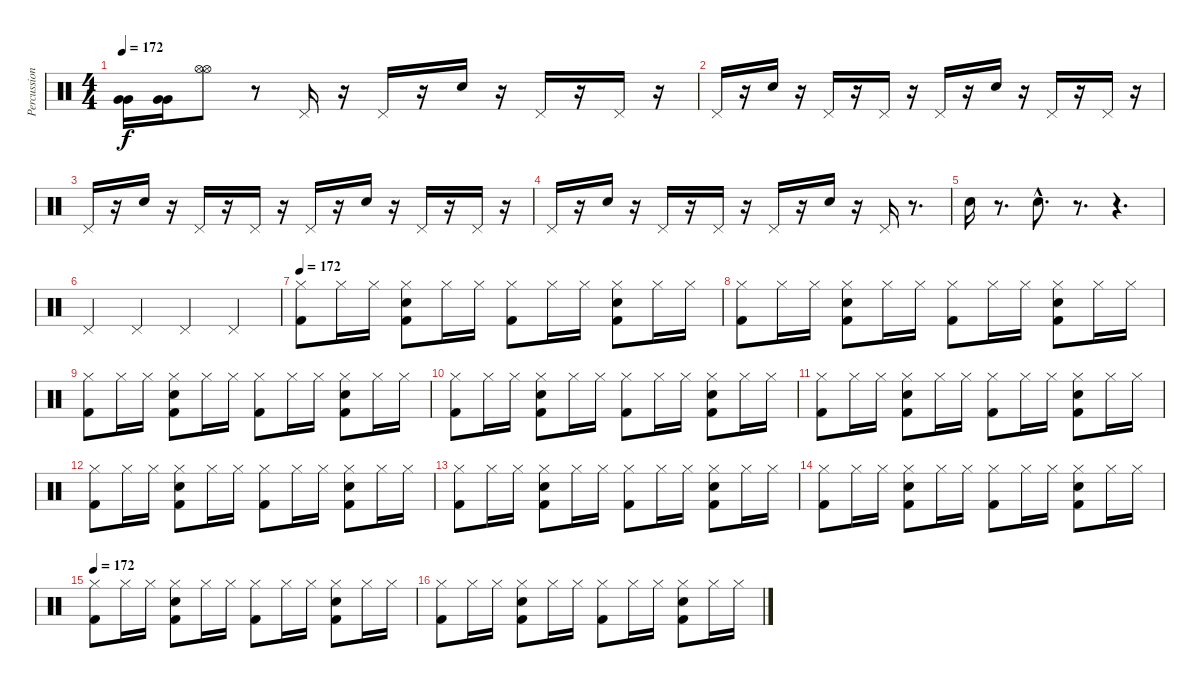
\track ("Percussion" "Percussion") {instrument percussion}
\staff {score}
\articulation defaults
\ts (4 4)
\tempo 172
\tempo 150
\tempo 172
\clef neutral
\ks c
("Very Low Tom (hit)" "Very Low Tom (hit)").16{dy f} ("Very Low Tom (hit)" "Very Low Tom (hit)").16 ("Hi-Hat (open)" "Hi-Hat (open)").8 r.8 "Pedal Hi-Hat (hit)".16 r.16 "Pedal Hi-Hat (hit)".16 r.16 "Snare (hit) 2".16 r.16 "Pedal Hi-Hat (hit)".16 r.16 "Pedal Hi-Hat (hit)".16 r.16 |
"Pedal Hi-Hat (hit)".16 r.16 "Snare (hit) 2".16 r.16 "Pedal Hi-Hat (hit)".16 r.16 "Pedal Hi-Hat (hit)".16 r.16 "Pedal Hi-Hat (hit)".16 r.16 "Snare (hit) 2".16 r.16 "Pedal Hi-Hat (hit)".16 r.16 "Pedal Hi-Hat (hit)".16 r.16 |
"Pedal Hi-Hat (hit)".16 r.16 "Snare (hit) 2".16 r.16 "Pedal Hi-Hat (hit)".16 r.16 "Pedal Hi-Hat (hit)".16 r.16 "Pedal Hi-Hat (hit)".16 r.16 "Snare (hit) 2".16 r.16 "Pedal Hi-Hat (hit)".16 r.16 "Pedal Hi-Hat (hit)".16 r.16 |
"Pedal Hi-Hat (hit)".16 r.16 "Snare (hit) 2".16 r.16 "Pedal Hi-Hat (hit)".16 r.16 "Pedal Hi-Hat (hit)".16 r.16 "Pedal Hi-Hat (hit)".16 r.16 "Snare (hit) 2".16 r.16 "Pedal Hi-Hat (hit)".16 r.8{d} |
"Snare (hit) 2".16 r.8{d} "Snare (hit) 2"{hac}.8{d} r.8{d} r.4{d} |
"Pedal Hi-Hat (hit)".4 "Pedal Hi-Hat (hit)".4 "Pedal Hi-Hat (hit)".4 "Pedal Hi-Hat (hit)".4 |
\tempo 172
("Hi-Hat (closed)" "Kick (hit) 2").8 "Hi-Hat (closed)".16 "Hi-Hat (closed)".16 ("Hi-Hat (closed)" "Snare (hit) 2" "Kick (hit) 2").8 "Hi-Hat (closed)".16 "Hi-Hat (closed)".16 ("Hi-Hat (closed)" "Kick (hit) 2").8 "Hi-Hat (closed)".16 "Hi-Hat (closed)".16 ("Hi-Hat (closed)" "Snare (hit) 2" "Kick (hit) 2").8 "Hi-Hat (closed)".16 "Hi-Hat (closed)".16 |
("Hi-Hat (closed)" "Kick (hit) 2").8 "Hi-Hat (closed)".16 "Hi-Hat (closed)".16 ("Hi-Hat (closed)" "Snare (hit) 2" "Kick (hit) 2").8 "Hi-Hat (closed)".16 "Hi-Hat (closed)".16 ("Hi-Hat (closed)" "Kick (hit) 2").8 "Hi-Hat (closed)".16 "Hi-Hat (closed)".16 ("Hi-Hat (closed)" "Snare (hit) 2" "Kick (hit) 2").8 "Hi-Hat (closed)".16 "Hi-Hat (closed)".16 |
("Hi-Hat (closed)" "Kick (hit) 2").8 "Hi-Hat (closed)".16 "Hi-Hat (closed)".16 ("Hi-Hat (closed)" "Snare (hit) 2" "Kick (hit) 2").8 "Hi-Hat (closed)".16 "Hi-Hat (closed)".16 ("Hi-Hat (closed)" "Kick (hit) 2").8 "Hi-Hat (closed)".16 "Hi-Hat (closed)".16 ("Hi-Hat (closed)" "Snare (hit) 2" "Kick (hit) 2").8 "Hi-Hat (closed)".16 "Hi-Hat (closed)".16 |
("Hi-Hat (closed)" "Kick (hit) 2").8 "Hi-Hat (closed)".16 "Hi-Hat (closed)".16 ("Hi-Hat (closed)" "Snare (hit) 2" "Kick (hit) 2").8 "Hi-Hat (closed)".16 "Hi-Hat (closed)".16 ("Hi-Hat (closed)" "Kick (hit) 2").8 "Hi-Hat (closed)".16 "Hi-Hat (closed)".16 ("Hi-Hat (closed)" "Snare (hit) 2" "Kick (hit) 2").8 "Hi-Hat (closed)".16 "Hi-Hat (closed)".16 |
("Hi-Hat (closed)" "Kick (hit) 2").8 "Hi-Hat (closed)".16 "Hi-Hat (closed)".16 ("Hi-Hat (closed)" "Snare (hit) 2" "Kick (hit) 2").8 "Hi-Hat (closed)".16 "Hi-Hat (closed)".16 ("Hi-Hat (closed)" "Kick (hit) 2").8 "Hi-Hat (closed)".16 "Hi-Hat (closed)".16 ("Hi-Hat (closed)" "Snare (hit) 2" "Kick (hit) 2").8 "Hi-Hat (closed)".16 "Hi-Hat (closed)".16 |
("Hi-Hat (closed)" "Kick (hit) 2").8 "Hi-Hat (closed)".16 "Hi-Hat (closed)".16 ("Hi-Hat (closed)" "Snare (hit) 2" "Kick (hit) 2").8 "Hi-Hat (closed)".16 "Hi-Hat (closed)".16 ("Hi-Hat (closed)" "Kick (hit) 2").8 "Hi-Hat (closed)".16 "Hi-Hat (closed)".16 ("Hi-Hat (closed)" "Snare (hit) 2" "Kick (hit) 2").8 "Hi-Hat (closed)".16 "Hi-Hat (closed)".16 |
("Hi-Hat (closed)" "Kick (hit) 2").8 "Hi-Hat (closed)".16 "Hi-Hat (closed)".16 ("Hi-Hat (closed)" "Snare (hit) 2" "Kick (hit) 2").8 "Hi-Hat (closed)".16 "Hi-Hat (closed)".16 ("Hi-Hat (closed)" "Kick (hit) 2").8 "Hi-Hat (closed)".16 "Hi-Hat (closed)".16 ("Hi-Hat (closed)" "Snare (hit) 2" "Kick (hit) 2").8 "Hi-Hat (closed)".16 "Hi-Hat (closed)".16 |
("Hi-Hat (closed)" "Kick (hit) 2").8 "Hi-Hat (closed)".16 "Hi-Hat (closed)".16 ("Hi-Hat (closed)" "Snare (hit) 2" "Kick (hit) 2").8 "Hi-Hat (closed)".16 "Hi-Hat (closed)".16 ("Hi-Hat (closed)" "Kick (hit) 2").8 "Hi-Hat (closed)".16 "Hi-Hat (closed)".16 ("Hi-Hat (closed)" "Snare (hit) 2" "Kick (hit) 2").8 "Hi-Hat (closed)".16 "Hi-Hat (closed)".16 |
\tempo 172
("Hi-Hat (closed)" "Kick (hit) 2").8 "Hi-Hat (closed)".16 "Hi-Hat (closed)".16 ("Hi-Hat (closed)" "Snare (hit) 2" "Kick (hit) 2").8 "Hi-Hat (closed)".16 "Hi-Hat (closed)".16 ("Hi-Hat (closed)" "Kick (hit) 2").8 "Hi-Hat (closed)".16 "Hi-Hat (closed)".16 ("Hi-Hat (closed)" "Snare (hit) 2" "Kick (hit) 2").8 "Hi-Hat (closed)".16 "Hi-Hat (closed)".16 |
("Hi-Hat (closed)" "Kick (hit) 2").8 "Hi-Hat (closed)".16 "Hi-Hat (closed)".16 ("Hi-Hat (closed)" "Snare (hit) 2" "Kick (hit) 2").8 "Hi-Hat (closed)".16 "Hi-Hat (closed)".16 ("Hi-Hat (closed)" "Kick (hit) 2").8 "Hi-Hat (closed)".16 "Hi-Hat (closed)".16 ("Hi-Hat (closed)" "Snare (hit) 2" "Kick (hit) 2").8 "Hi-Hat (closed)".16 "Hi-Hat (closed)".16
